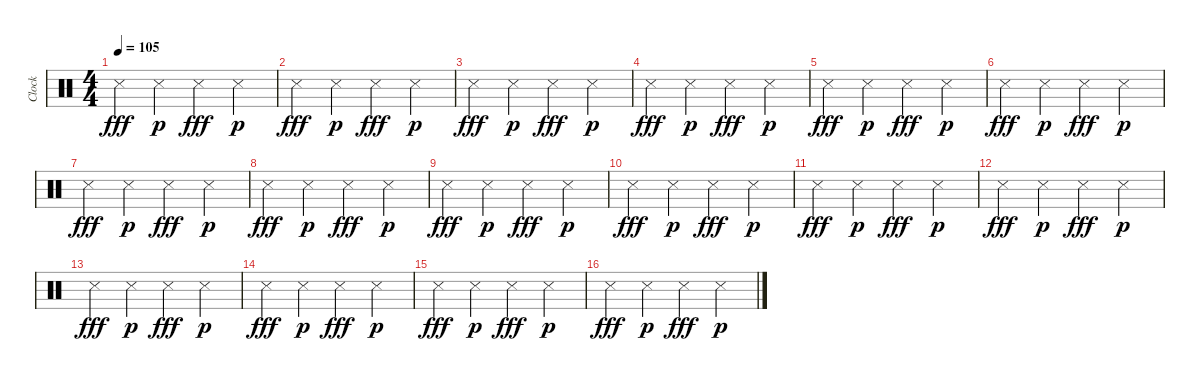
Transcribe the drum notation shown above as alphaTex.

\track ("Clock" "Clock") {instrument percussion}
\staff {score}
\articulation defaults
\ts (4 4)
\tempo 105
\clef neutral
\ks c "Metronome (hit)".4{dy fff} "Metronome (hit)".4{dy p} "Metronome (hit)".4{dy fff} "Metronome (hit)".4{dy p}
|
"Metronome (hit)".4{dy fff} "Metronome (hit)".4{dy p} "Metronome (hit)".4{dy fff} "Metronome (hit)".4{dy p} |
"Metronome (hit)".4{dy fff} "Metronome (hit)".4{dy p} "Metronome (hit)".4{dy fff} "Metronome (hit)".4{dy p} |
"Metronome (hit)".4{dy fff} "Metronome (hit)".4{dy p} "Metronome (hit)".4{dy fff} "Metronome (hit)".4{dy p} |
"Metronome (hit)".4{dy fff} "Metronome (hit)".4{dy p} "Metronome (hit)".4{dy fff} "Metronome (hit)".4{dy p} |
"Metronome (hit)".4{dy fff} "Metronome (hit)".4{dy p} "Metronome (hit)".4{dy fff} "Metronome (hit)".4{dy p} |
"Metronome (hit)".4{dy fff volume 8} "Metronome (hit)".4{dy p} "Metronome (hit)".4{dy fff} "Metronome (hit)".4{dy p} |
"Metronome (hit)".4{dy fff} "Metronome (hit)".4{dy p} "Metronome (hit)".4{dy fff} "Metronome (hit)".4{dy p} |
"Metronome (hit)".4{dy fff} "Metronome (hit)".4{dy p} "Metronome (hit)".4{dy fff} "Metronome (hit)".4{dy p} |
"Metronome (hit)".4{dy fff} "Metronome (hit)".4{dy p} "Metronome (hit)".4{dy fff} "Metronome (hit)".4{dy p} |
"Metronome (hit)".4{dy fff volume 5} "Metronome (hit)".4{dy p} "Metronome (hit)".4{dy fff} "Metronome (hit)".4{dy p} |
"Metronome (hit)".4{dy fff} "Metronome (hit)".4{dy p} "Metronome (hit)".4{dy fff} "Metronome (hit)".4{dy p} |
"Metronome (hit)".4{dy fff} "Metronome (hit)".4{dy p} "Metronome (hit)".4{dy fff} "Metronome (hit)".4{dy p} |
"Metronome (hit)".4{dy fff} "Metronome (hit)".4{dy p} "Metronome (hit)".4{dy fff} "Metronome (hit)".4{dy p} |
"Metronome (hit)".4{dy fff volume 0} "Metronome (hit)".4{dy p} "Metronome (hit)".4{dy fff} "Metronome (hit)".4{dy p} |
"Metronome (hit)".4{dy fff} "Metronome (hit)".4{dy p} "Metronome (hit)".4{dy fff} "Metronome (hit)".4{dy p}
